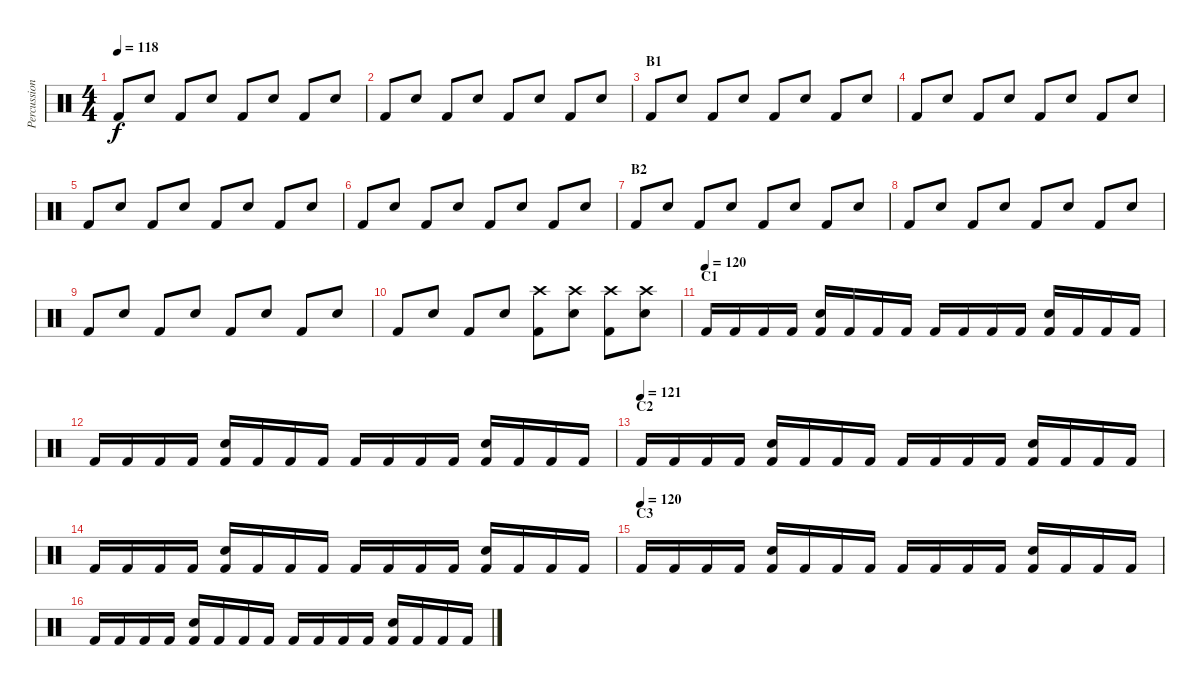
\track ("Percussion" "Percussion") {instrument percussion}
\staff {score}
\articulation defaults
\ts (4 4)
\tempo 118
\clef neutral
\ks c "Kick (hit) 2".8{dy f} "Electric Snare (hit)".8 "Kick (hit) 2".8 "Electric Snare (hit)".8 "Kick (hit) 2".8 "Electric Snare (hit)".8 "Kick (hit) 2".8 "Electric Snare (hit)".8
|
"Kick (hit) 2".8 "Electric Snare (hit)".8 "Kick (hit) 2".8 "Electric Snare (hit)".8 "Kick (hit) 2".8 "Electric Snare (hit)".8 "Kick (hit) 2".8 "Electric Snare (hit)".8 |
\section ("" "B1")
"Kick (hit) 2".8 "Electric Snare (hit)".8 "Kick (hit) 2".8 "Electric Snare (hit)".8 "Kick (hit) 2".8 "Electric Snare (hit)".8 "Kick (hit) 2".8 "Electric Snare (hit)".8 |
"Kick (hit) 2".8 "Electric Snare (hit)".8 "Kick (hit) 2".8 "Electric Snare (hit)".8 "Kick (hit) 2".8 "Electric Snare (hit)".8 "Kick (hit) 2".8 "Electric Snare (hit)".8 |
"Kick (hit) 2".8 "Electric Snare (hit)".8 "Kick (hit) 2".8 "Electric Snare (hit)".8 "Kick (hit) 2".8 "Electric Snare (hit)".8 "Kick (hit) 2".8 "Electric Snare (hit)".8 |
"Kick (hit) 2".8 "Electric Snare (hit)".8 "Kick (hit) 2".8 "Electric Snare (hit)".8 "Kick (hit) 2".8 "Electric Snare (hit)".8 "Kick (hit) 2".8 "Electric Snare (hit)".8 |
\section ("" "B2")
"Kick (hit) 2".8 "Electric Snare (hit)".8 "Kick (hit) 2".8 "Electric Snare (hit)".8 "Kick (hit) 2".8 "Electric Snare (hit)".8 "Kick (hit) 2".8 "Electric Snare (hit)".8 |
"Kick (hit) 2".8 "Electric Snare (hit)".8 "Kick (hit) 2".8 "Electric Snare (hit)".8 "Kick (hit) 2".8 "Electric Snare (hit)".8 "Kick (hit) 2".8 "Electric Snare (hit)".8 |
"Kick (hit) 2".8 "Electric Snare (hit)".8 "Kick (hit) 2".8 "Electric Snare (hit)".8 "Kick (hit) 2".8 "Electric Snare (hit)".8 "Kick (hit) 2".8 "Electric Snare (hit)".8 |
"Kick (hit) 2".8 "Electric Snare (hit)".8 "Kick (hit) 2".8 "Electric Snare (hit)".8 ("Kick (hit) 2" "Crash high (hit)").8 ("Electric Snare (hit)" "Crash high (hit)").8 ("Kick (hit) 2" "Crash high (hit)").8 ("Electric Snare (hit)" "Crash high (hit)").8 |
\section ("" "C1")
\tempo (120)
"Kick (hit) 2".16 "Kick (hit) 2".16 "Kick (hit) 2".16 "Kick (hit) 2".16 ("Kick (hit) 2" "Electric Snare (hit)").16 "Kick (hit) 2".16 "Kick (hit) 2".16 "Kick (hit) 2".16 "Kick (hit) 2".16 "Kick (hit) 2".16 "Kick (hit) 2".16 "Kick (hit) 2".16 ("Kick (hit) 2" "Electric Snare (hit)").16 "Kick (hit) 2".16 "Kick (hit) 2".16 "Kick (hit) 2".16 |
"Kick (hit) 2".16 "Kick (hit) 2".16 "Kick (hit) 2".16 "Kick (hit) 2".16 ("Kick (hit) 2" "Electric Snare (hit)").16 "Kick (hit) 2".16 "Kick (hit) 2".16 "Kick (hit) 2".16 "Kick (hit) 2".16 "Kick (hit) 2".16 "Kick (hit) 2".16 "Kick (hit) 2".16 ("Kick (hit) 2" "Electric Snare (hit)").16 "Kick (hit) 2".16 "Kick (hit) 2".16 "Kick (hit) 2".16 |
\section ("" "C2")
\tempo (121)
"Kick (hit) 2".16 "Kick (hit) 2".16 "Kick (hit) 2".16 "Kick (hit) 2".16 ("Kick (hit) 2" "Electric Snare (hit)").16 "Kick (hit) 2".16 "Kick (hit) 2".16 "Kick (hit) 2".16 "Kick (hit) 2".16 "Kick (hit) 2".16 "Kick (hit) 2".16 "Kick (hit) 2".16 ("Kick (hit) 2" "Electric Snare (hit)").16 "Kick (hit) 2".16 "Kick (hit) 2".16 "Kick (hit) 2".16 |
"Kick (hit) 2".16 "Kick (hit) 2".16 "Kick (hit) 2".16 "Kick (hit) 2".16 ("Kick (hit) 2" "Electric Snare (hit)").16 "Kick (hit) 2".16 "Kick (hit) 2".16 "Kick (hit) 2".16 "Kick (hit) 2".16 "Kick (hit) 2".16 "Kick (hit) 2".16 "Kick (hit) 2".16 ("Kick (hit) 2" "Electric Snare (hit)").16 "Kick (hit) 2".16 "Kick (hit) 2".16 "Kick (hit) 2".16 |
\section ("" "C3")
\tempo (120)
"Kick (hit) 2".16 "Kick (hit) 2".16 "Kick (hit) 2".16 "Kick (hit) 2".16 ("Kick (hit) 2" "Electric Snare (hit)").16 "Kick (hit) 2".16 "Kick (hit) 2".16 "Kick (hit) 2".16 "Kick (hit) 2".16 "Kick (hit) 2".16 "Kick (hit) 2".16 "Kick (hit) 2".16 ("Kick (hit) 2" "Electric Snare (hit)").16 "Kick (hit) 2".16 "Kick (hit) 2".16 "Kick (hit) 2".16 |
"Kick (hit) 2".16 "Kick (hit) 2".16 "Kick (hit) 2".16 "Kick (hit) 2".16 ("Kick (hit) 2" "Electric Snare (hit)").16 "Kick (hit) 2".16 "Kick (hit) 2".16 "Kick (hit) 2".16 "Kick (hit) 2".16 "Kick (hit) 2".16 "Kick (hit) 2".16 "Kick (hit) 2".16 ("Kick (hit) 2" "Electric Snare (hit)").16 "Kick (hit) 2".16 "Kick (hit) 2".16 "Kick (hit) 2".16
